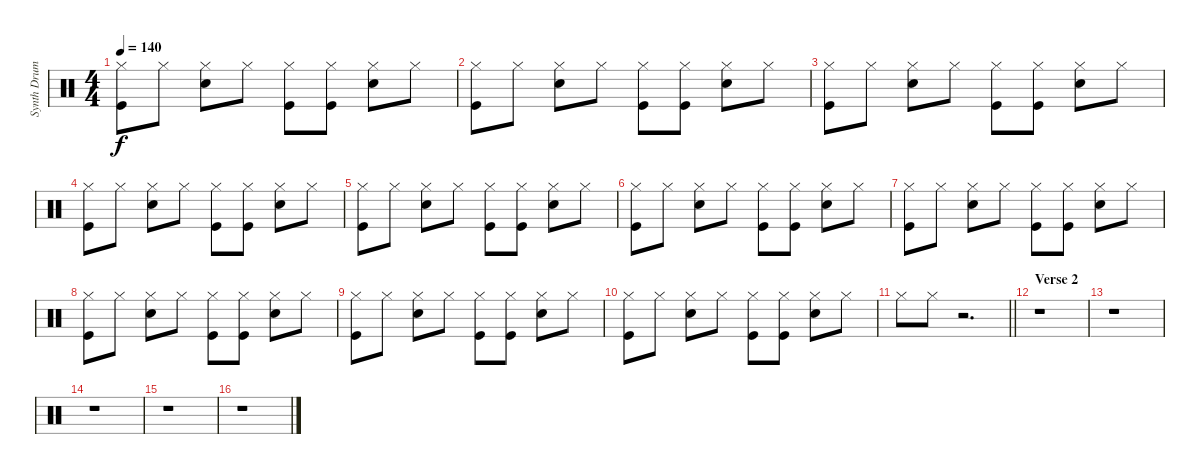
\track ("Synth Drums" "Synth Drum") {instrument percussion}
\staff {score}
\articulation defaults
\ts (4 4)
\tempo 140
\clef neutral
\ks c
("Hi-Hat (closed)" "Kick (hit)").8{dy f} "Hi-Hat (closed)".8 ("Hi-Hat (closed)" "Snare (hit) 2").8 "Hi-Hat (closed)".8 ("Hi-Hat (closed)" "Kick (hit)").8 ("Hi-Hat (closed)" "Kick (hit)").8 ("Hi-Hat (closed)" "Snare (hit) 2").8 "Hi-Hat (closed)".8 |
("Hi-Hat (closed)" "Kick (hit)").8 "Hi-Hat (closed)".8 ("Hi-Hat (closed)" "Snare (hit) 2").8 "Hi-Hat (closed)".8 ("Hi-Hat (closed)" "Kick (hit)").8 ("Hi-Hat (closed)" "Kick (hit)").8 ("Hi-Hat (closed)" "Snare (hit) 2").8 "Hi-Hat (closed)".8 |
("Hi-Hat (closed)" "Kick (hit)").8 "Hi-Hat (closed)".8 ("Hi-Hat (closed)" "Snare (hit) 2").8 "Hi-Hat (closed)".8 ("Hi-Hat (closed)" "Kick (hit)").8 ("Hi-Hat (closed)" "Kick (hit)").8 ("Hi-Hat (closed)" "Snare (hit) 2").8 "Hi-Hat (closed)".8 |
("Hi-Hat (closed)" "Kick (hit)").8 "Hi-Hat (closed)".8 ("Hi-Hat (closed)" "Snare (hit) 2").8 "Hi-Hat (closed)".8 ("Hi-Hat (closed)" "Kick (hit)").8 ("Hi-Hat (closed)" "Kick (hit)").8 ("Hi-Hat (closed)" "Snare (hit) 2").8 "Hi-Hat (closed)".8 |
("Hi-Hat (closed)" "Kick (hit)").8 "Hi-Hat (closed)".8 ("Hi-Hat (closed)" "Snare (hit) 2").8 "Hi-Hat (closed)".8 ("Hi-Hat (closed)" "Kick (hit)").8 ("Hi-Hat (closed)" "Kick (hit)").8 ("Hi-Hat (closed)" "Snare (hit) 2").8 "Hi-Hat (closed)".8 |
("Hi-Hat (closed)" "Kick (hit)").8 "Hi-Hat (closed)".8 ("Hi-Hat (closed)" "Snare (hit) 2").8 "Hi-Hat (closed)".8 ("Hi-Hat (closed)" "Kick (hit)").8 ("Hi-Hat (closed)" "Kick (hit)").8 ("Hi-Hat (closed)" "Snare (hit) 2").8 "Hi-Hat (closed)".8 |
("Hi-Hat (closed)" "Kick (hit)").8 "Hi-Hat (closed)".8 ("Hi-Hat (closed)" "Snare (hit) 2").8 "Hi-Hat (closed)".8 ("Hi-Hat (closed)" "Kick (hit)").8 ("Hi-Hat (closed)" "Kick (hit)").8 ("Hi-Hat (closed)" "Snare (hit) 2").8 "Hi-Hat (closed)".8 |
("Hi-Hat (closed)" "Kick (hit)").8 "Hi-Hat (closed)".8 ("Hi-Hat (closed)" "Snare (hit) 2").8 "Hi-Hat (closed)".8 ("Hi-Hat (closed)" "Kick (hit)").8 ("Hi-Hat (closed)" "Kick (hit)").8 ("Hi-Hat (closed)" "Snare (hit) 2").8 "Hi-Hat (closed)".8 |
("Hi-Hat (closed)" "Kick (hit)").8 "Hi-Hat (closed)".8 ("Hi-Hat (closed)" "Snare (hit) 2").8 "Hi-Hat (closed)".8 ("Hi-Hat (closed)" "Kick (hit)").8 ("Hi-Hat (closed)" "Kick (hit)").8 ("Hi-Hat (closed)" "Snare (hit) 2").8 "Hi-Hat (closed)".8 |
("Hi-Hat (closed)" "Kick (hit)").8 "Hi-Hat (closed)".8 ("Hi-Hat (closed)" "Snare (hit) 2").8 "Hi-Hat (closed)".8 ("Hi-Hat (closed)" "Kick (hit)").8 ("Hi-Hat (closed)" "Kick (hit)").8 ("Hi-Hat (closed)" "Snare (hit) 2").8 "Hi-Hat (closed)".8 |
\barLineRight lightlight "Hi-Hat (closed)".8 "Hi-Hat (closed)".8
r.2{d} |
\section ("" "Verse 2")
r.1 |
r.1 |
r.1 |
r.1 |
r.1
